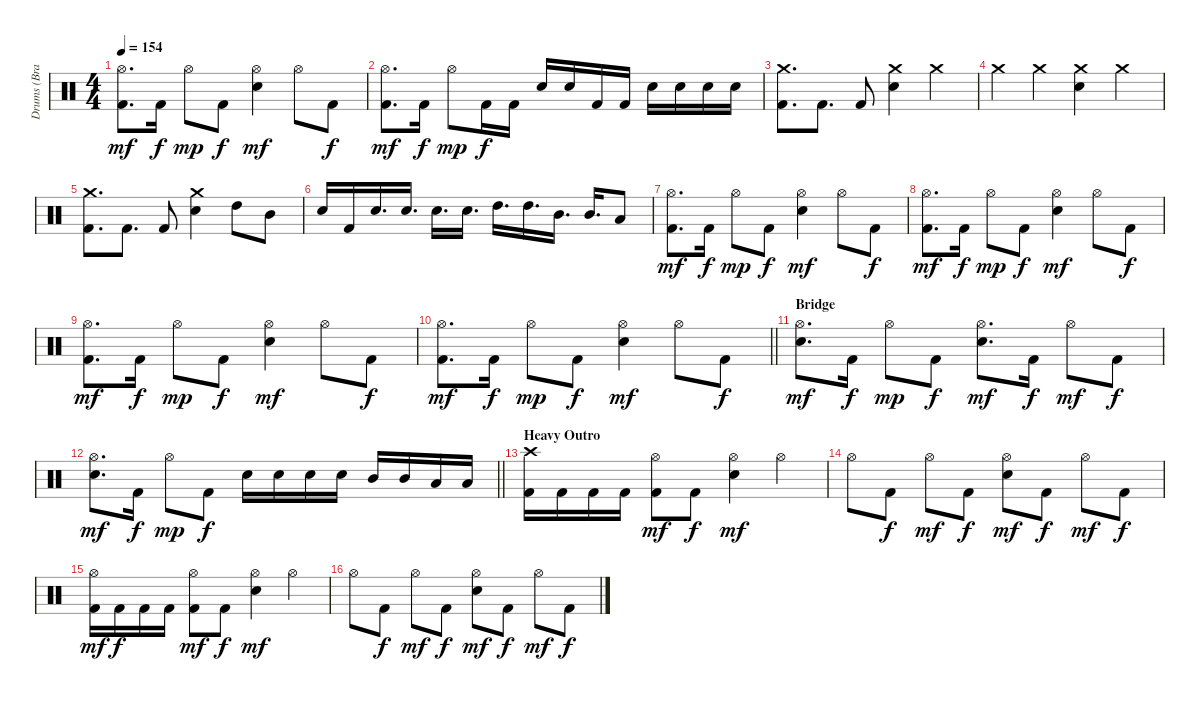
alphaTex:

\track ("Drums (Brandon Saller)" "Drums (Bra") {instrument percussion}
\staff {score}
\articulation defaults
\ts (4 4)
\tempo 154
\clef neutral
\ks c
("Hi-Hat (open)" "Kick (hit) 2").8{d dy mf} "Kick (hit) 2".16{dy f} "Hi-Hat (open)".8{dy mp} "Kick (hit) 2".8{dy f} ("Hi-Hat (open)" "Electric Snare (hit)").4{dy mf} "Hi-Hat (open)".8 "Kick (hit) 2".8{dy f} |
("Hi-Hat (open)" "Kick (hit) 2").8{d dy mf} "Kick (hit) 2".16{dy f} "Hi-Hat (open)".8{dy mp} "Kick (hit) 2".16{dy f} "Kick (hit) 2".16 "Electric Snare (hit)".16 "Electric Snare (hit)".16 "Kick (hit) 2".16 "Kick (hit) 2".16 "Electric Snare (hit)".16 "Electric Snare (hit)".16 "Electric Snare (hit)".16 "Electric Snare (hit)".16 |
("Crash medium (hit)" "Kick (hit) 2").8{d} "Kick (hit) 2".8{d} "Kick (hit) 2".8 ("Crash medium (hit)" "Electric Snare (hit)").4 "Crash medium (hit)".4 |
"Crash medium (hit)".4 "Crash medium (hit)".4 ("Crash medium (hit)" "Electric Snare (hit)").4 "Crash medium (hit)".4 |
("Crash medium (hit)" "Kick (hit) 2").8{d} "Kick (hit) 2".8{d} "Kick (hit) 2".8 ("Crash medium (hit)" "Electric Snare (hit)").4 "High Tom (hit)".8 "Mid Tom (hit)".8 |
"Electric Snare (hit)".16 "Kick (hit) 2".16 "Electric Snare (hit)".16{d} "Electric Snare (hit)".16{d} "Electric Snare (hit)".16{d} "Electric Snare (hit)".16{d} "High Tom (hit)".16{d} "High Tom (hit)".16{d} "Mid Tom (hit)".16{d} "Mid Tom (hit)".16{d} "Low Tom (hit)".8 |
("Hi-Hat (open)" "Kick (hit) 2").8{d dy mf} "Kick (hit) 2".16{dy f} "Hi-Hat (open)".8{dy mp} "Kick (hit) 2".8{dy f} ("Hi-Hat (open)" "Electric Snare (hit)").4{dy mf} "Hi-Hat (open)".8 "Kick (hit) 2".8{dy f} |
("Hi-Hat (open)" "Kick (hit) 2").8{d dy mf} "Kick (hit) 2".16{dy f} "Hi-Hat (open)".8{dy mp} "Kick (hit) 2".8{dy f} ("Hi-Hat (open)" "Electric Snare (hit)").4{dy mf} "Hi-Hat (open)".8 "Kick (hit) 2".8{dy f} |
("Hi-Hat (open)" "Kick (hit) 2").8{d dy mf} "Kick (hit) 2".16{dy f} "Hi-Hat (open)".8{dy mp} "Kick (hit) 2".8{dy f} ("Hi-Hat (open)" "Electric Snare (hit)").4{dy mf} "Hi-Hat (open)".8 "Kick (hit) 2".8{dy f} |
\barLineRight lightlight
("Hi-Hat (open)" "Kick (hit) 2").8{d dy mf} "Kick (hit) 2".16{dy f} "Hi-Hat (open)".8{dy mp} "Kick (hit) 2".8{dy f} ("Hi-Hat (open)" "Electric Snare (hit)").4{dy mf} "Hi-Hat (open)".8 "Kick (hit) 2".8{dy f} |
\section ("" "Bridge")
("Hi-Hat (open)" "Electric Snare (hit)").8{d dy mf} "Kick (hit) 2".16{dy f} "Hi-Hat (open)".8{dy mp} "Kick (hit) 2".8{dy f} ("Hi-Hat (open)" "Electric Snare (hit)").8{d dy mf} "Kick (hit) 2".16{dy f} "Hi-Hat (open)".8{dy mf} "Kick (hit) 2".8{dy f} |
\barLineRight lightlight
("Hi-Hat (open)" "Electric Snare (hit)").8{d dy mf} "Kick (hit) 2".16{dy f} "Hi-Hat (open)".8{dy mp} "Kick (hit) 2".8{dy f} "Electric Snare (hit)".16 "Electric Snare (hit)".16 "Electric Snare (hit)".16 "Electric Snare (hit)".16 "Mid Tom (hit)".16 "Mid Tom (hit)".16 "Low Tom (hit)".16 "Low Tom (hit)".16 |
\section ("" "Heavy Outro")
("Crash high (hit)" "Kick (hit) 2").16 "Kick (hit) 2".16 "Kick (hit) 2".16 "Kick (hit) 2".16 ("Hi-Hat (open)" "Kick (hit) 2").8{dy mf} "Kick (hit) 2".8{dy f} ("Hi-Hat (open)" "Electric Snare (hit)").4{dy mf} "Hi-Hat (open)".4 |
"Hi-Hat (open)".8 "Kick (hit) 2".8{dy f} "Hi-Hat (open)".8{dy mf} "Kick (hit) 2".8{dy f} ("Hi-Hat (open)" "Electric Snare (hit)").8{dy mf} "Kick (hit) 2".8{dy f} "Hi-Hat (open)".8{dy mf} "Kick (hit) 2".8{dy f} |
("Hi-Hat (open)" "Kick (hit) 2").16{dy mf} "Kick (hit) 2".16{dy f} "Kick (hit) 2".16 "Kick (hit) 2".16 ("Hi-Hat (open)" "Kick (hit) 2").8{dy mf} "Kick (hit) 2".8{dy f} ("Hi-Hat (open)" "Electric Snare (hit)").4{dy mf} "Hi-Hat (open)".4 |
"Hi-Hat (open)".8 "Kick (hit) 2".8{dy f} "Hi-Hat (open)".8{dy mf} "Kick (hit) 2".8{dy f} ("Hi-Hat (open)" "Electric Snare (hit)").8{dy mf} "Kick (hit) 2".8{dy f} "Hi-Hat (open)".8{dy mf} "Kick (hit) 2".8{dy f}
